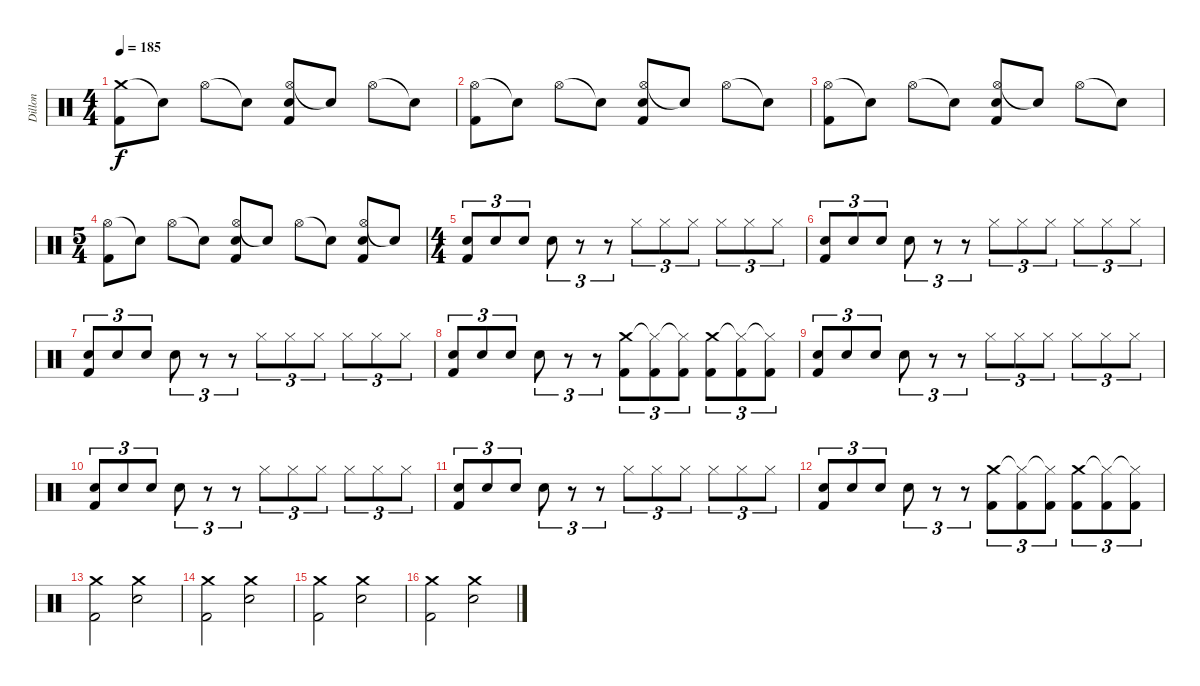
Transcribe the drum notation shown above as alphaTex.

\track ("Dillon" "Dillon") {instrument percussion}
\staff {score}
\articulation defaults
\ts (4 4)
\tempo 185
\clef neutral
\ks c
("Crash medium (hit)" "Kick (hit) 2").8{dy f} "Snare (hit)"{t}.8 "Hi-Hat (open)".8 "Snare (hit)"{t}.8 ("Hi-Hat (open)" "Electric Snare (hit)" "Kick (hit) 2").8 "Snare (hit)"{t}.8 "Hi-Hat (open)".8 "Snare (hit)"{t}.8 |
("Hi-Hat (open)" "Kick (hit) 2").8 "Snare (hit)"{t}.8 "Hi-Hat (open)".8 "Snare (hit)"{t}.8 ("Hi-Hat (open)" "Electric Snare (hit)" "Kick (hit) 2").8 "Snare (hit)"{t}.8 "Hi-Hat (open)".8 "Snare (hit)"{t}.8 |
("Hi-Hat (open)" "Kick (hit) 2").8 "Snare (hit)"{t}.8 "Hi-Hat (open)".8 "Snare (hit)"{t}.8 ("Hi-Hat (open)" "Electric Snare (hit)" "Kick (hit) 2").8 "Snare (hit)"{t}.8 "Hi-Hat (open)".8 "Snare (hit)"{t}.8 |
\ts (5 4)
("Hi-Hat (open)" "Kick (hit) 2").8 "Snare (hit)"{t}.8 "Hi-Hat (open)".8 "Snare (hit)"{t}.8 ("Hi-Hat (open)" "Electric Snare (hit)" "Kick (hit) 2").8 "Snare (hit)"{t}.8 "Hi-Hat (open)".8 "Snare (hit)"{t}.8 ("Hi-Hat (open)" "Electric Snare (hit)" "Kick (hit) 2").8 "Snare (hit)"{t}.8 |
\ts (4 4)
("Electric Snare (hit)" "Kick (hit) 2").8{tu (3 2)} "Electric Snare (hit)".8{tu (3 2)} "Electric Snare (hit)".8{tu (3 2)} "Electric Snare (hit)".8{tu (3 2)} r.8{tu (3 2)} r.8{tu (3 2)} "Hi-Hat (closed)".8{tu (3 2)} "Hi-Hat (closed)".8{tu (3 2)} "Hi-Hat (closed)".8{tu (3 2)} "Hi-Hat (closed)".8{tu (3 2)} "Hi-Hat (closed)".8{tu (3 2)} "Hi-Hat (closed)".8{tu (3 2)} |
("Electric Snare (hit)" "Kick (hit) 2").8{tu (3 2)} "Electric Snare (hit)".8{tu (3 2)} "Electric Snare (hit)".8{tu (3 2)} "Electric Snare (hit)".8{tu (3 2)} r.8{tu (3 2)} r.8{tu (3 2)} "Hi-Hat (closed)".8{tu (3 2)} "Hi-Hat (closed)".8{tu (3 2)} "Hi-Hat (closed)".8{tu (3 2)} "Hi-Hat (closed)".8{tu (3 2)} "Hi-Hat (closed)".8{tu (3 2)} "Hi-Hat (closed)".8{tu (3 2)} |
("Electric Snare (hit)" "Kick (hit) 2").8{tu (3 2)} "Electric Snare (hit)".8{tu (3 2)} "Electric Snare (hit)".8{tu (3 2)} "Electric Snare (hit)".8{tu (3 2)} r.8{tu (3 2)} r.8{tu (3 2)} "Hi-Hat (closed)".8{tu (3 2)} "Hi-Hat (closed)".8{tu (3 2)} "Hi-Hat (closed)".8{tu (3 2)} "Hi-Hat (closed)".8{tu (3 2)} "Hi-Hat (closed)".8{tu (3 2)} "Hi-Hat (closed)".8{tu (3 2)} |
("Electric Snare (hit)" "Kick (hit) 2").8{tu (3 2)} "Electric Snare (hit)".8{tu (3 2)} "Electric Snare (hit)".8{tu (3 2)} "Electric Snare (hit)".8{tu (3 2)} r.8{tu (3 2)} r.8{tu (3 2)} ("Crash medium (hit)" "Kick (hit) 2").8{tu (3 2)} ("Hi-Hat (closed)"{t} "Kick (hit) 2").8{tu (3 2)} ("Hi-Hat (closed)"{t} "Kick (hit) 2").8{tu (3 2)} ("Crash medium (hit)" "Kick (hit) 2").8{tu (3 2)} ("Hi-Hat (closed)"{t} "Kick (hit) 2").8{tu (3 2)} ("Hi-Hat (closed)"{t} "Kick (hit) 2").8{tu (3 2)} |
("Electric Snare (hit)" "Kick (hit) 2").8{tu (3 2)} "Electric Snare (hit)".8{tu (3 2)} "Electric Snare (hit)".8{tu (3 2)} "Electric Snare (hit)".8{tu (3 2)} r.8{tu (3 2)} r.8{tu (3 2)} "Hi-Hat (closed)".8{tu (3 2)} "Hi-Hat (closed)".8{tu (3 2)} "Hi-Hat (closed)".8{tu (3 2)} "Hi-Hat (closed)".8{tu (3 2)} "Hi-Hat (closed)".8{tu (3 2)} "Hi-Hat (closed)".8{tu (3 2)} |
("Electric Snare (hit)" "Kick (hit) 2").8{tu (3 2)} "Electric Snare (hit)".8{tu (3 2)} "Electric Snare (hit)".8{tu (3 2)} "Electric Snare (hit)".8{tu (3 2)} r.8{tu (3 2)} r.8{tu (3 2)} "Hi-Hat (closed)".8{tu (3 2)} "Hi-Hat (closed)".8{tu (3 2)} "Hi-Hat (closed)".8{tu (3 2)} "Hi-Hat (closed)".8{tu (3 2)} "Hi-Hat (closed)".8{tu (3 2)} "Hi-Hat (closed)".8{tu (3 2)} |
("Electric Snare (hit)" "Kick (hit) 2").8{tu (3 2)} "Electric Snare (hit)".8{tu (3 2)} "Electric Snare (hit)".8{tu (3 2)} "Electric Snare (hit)".8{tu (3 2)} r.8{tu (3 2)} r.8{tu (3 2)} "Hi-Hat (closed)".8{tu (3 2)} "Hi-Hat (closed)".8{tu (3 2)} "Hi-Hat (closed)".8{tu (3 2)} "Hi-Hat (closed)".8{tu (3 2)} "Hi-Hat (closed)".8{tu (3 2)} "Hi-Hat (closed)".8{tu (3 2)} |
("Electric Snare (hit)" "Kick (hit) 2").8{tu (3 2)} "Electric Snare (hit)".8{tu (3 2)} "Electric Snare (hit)".8{tu (3 2)} "Electric Snare (hit)".8{tu (3 2)} r.8{tu (3 2)} r.8{tu (3 2)} ("Crash medium (hit)" "Kick (hit) 2").8{tu (3 2)} ("Hi-Hat (closed)"{t} "Kick (hit) 2").8{tu (3 2)} ("Hi-Hat (closed)"{t} "Kick (hit) 2").8{tu (3 2)} ("Crash medium (hit)" "Kick (hit) 2").8{tu (3 2)} ("Hi-Hat (closed)"{t} "Kick (hit) 2").8{tu (3 2)} ("Hi-Hat (closed)"{t} "Kick (hit) 2").8{tu (3 2)} |
("Crash medium (hit)" "Kick (hit) 2").2 ("Crash medium (hit)" "Electric Snare (hit)").2 |
("Crash medium (hit)" "Kick (hit) 2").2 ("Crash medium (hit)" "Electric Snare (hit)").2 |
("Crash medium (hit)" "Kick (hit) 2").2 ("Crash medium (hit)" "Electric Snare (hit)").2 |
("Crash medium (hit)" "Kick (hit) 2").2 ("Crash medium (hit)" "Electric Snare (hit)").2
